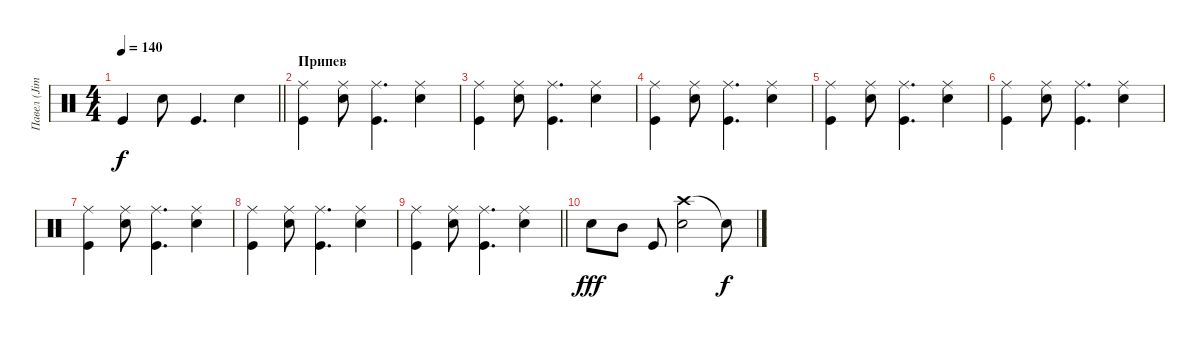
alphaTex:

\track ("Павел (Jimmy) Лохнин" "Павел (Jim") {instrument percussion}
\staff {score}
\articulation defaults
\ts (4 4)
\tempo 140
\clef neutral
\barLineRight lightlight
\ks c "Kick (hit)".4{dy f} "Snare (hit) 2".8 "Kick (hit)".4{d} "Snare (hit) 2".4
|
\section ("" "Припев")
("Ride (middle)" "Kick (hit)").4 ("Ride (middle)" "Snare (hit) 2").8 ("Ride (middle)" "Kick (hit)").4{d} ("Ride (middle)" "Snare (hit) 2").4 |
("Ride (middle)" "Kick (hit)").4 ("Ride (middle)" "Snare (hit) 2").8 ("Ride (middle)" "Kick (hit)").4{d} ("Ride (middle)" "Snare (hit) 2").4 |
("Ride (middle)" "Kick (hit)").4 ("Ride (middle)" "Snare (hit) 2").8 ("Ride (middle)" "Kick (hit)").4{d} ("Ride (middle)" "Snare (hit) 2").4 |
("Ride (middle)" "Kick (hit)").4 ("Ride (middle)" "Snare (hit) 2").8 ("Ride (middle)" "Kick (hit)").4{d} ("Ride (middle)" "Snare (hit) 2").4 |
("Ride (middle)" "Kick (hit)").4 ("Ride (middle)" "Snare (hit) 2").8 ("Ride (middle)" "Kick (hit)").4{d} ("Ride (middle)" "Snare (hit) 2").4 |
("Ride (middle)" "Kick (hit)").4 ("Ride (middle)" "Snare (hit) 2").8 ("Ride (middle)" "Kick (hit)").4{d} ("Ride (middle)" "Snare (hit) 2").4 |
("Ride (middle)" "Kick (hit)").4 ("Ride (middle)" "Snare (hit) 2").8 ("Ride (middle)" "Kick (hit)").4{d} ("Ride (middle)" "Snare (hit) 2").4 |
\barLineRight lightlight
("Ride (middle)" "Kick (hit)").4 ("Ride (middle)" "Snare (hit) 2").8 ("Ride (middle)" "Kick (hit)").4{d} ("Ride (middle)" "Snare (hit) 2").4 |
"Snare (hit) 2".8{dy fff} "Mid Tom (hit)".8 "Kick (hit)".8 ("Crash high (hit)" "Snare (hit) 2").2 "Snare (hit)"{t}.8{dy f}
